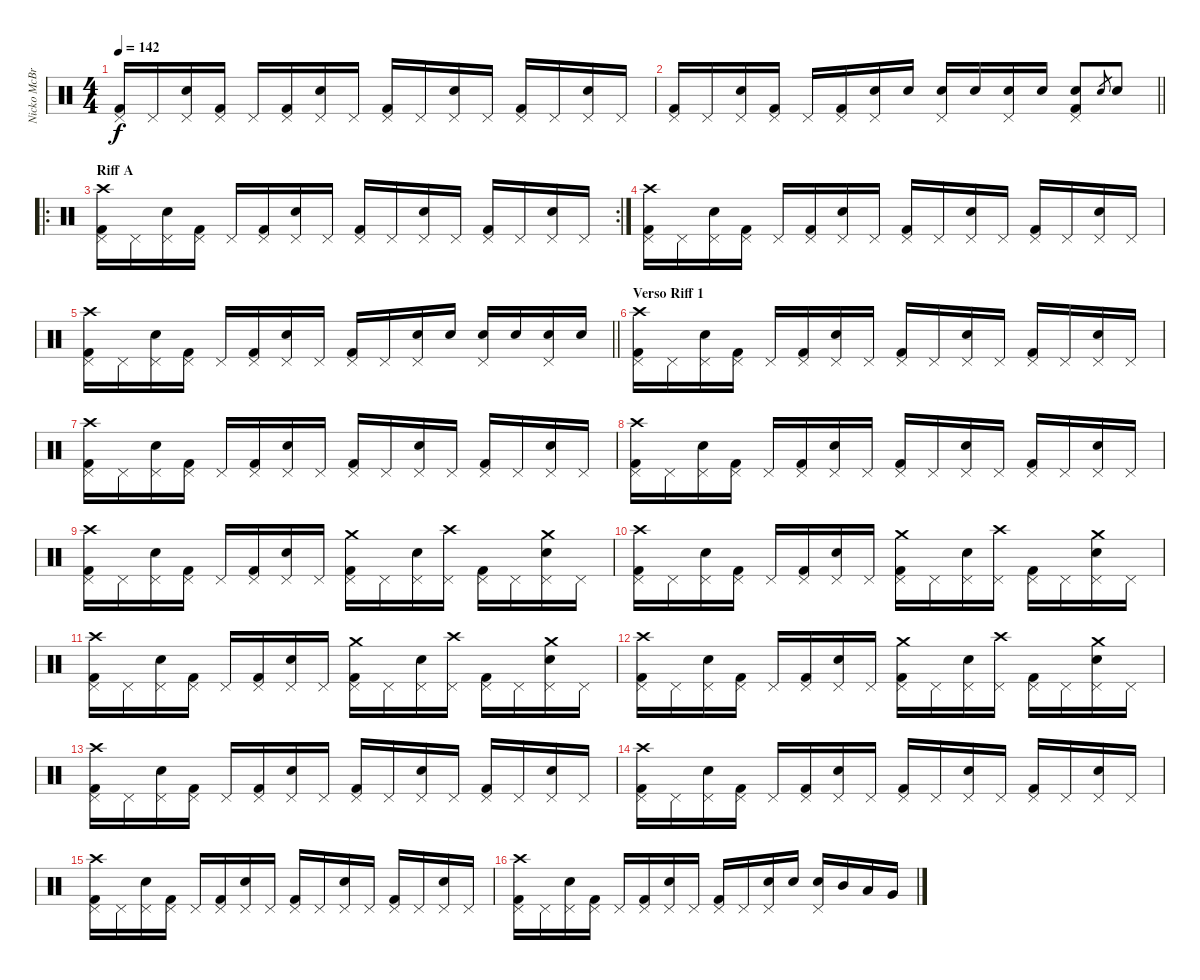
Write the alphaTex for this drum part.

\track ("Nicko McBrain" "Nicko McBr") {instrument percussion}
\staff {score}
\articulation defaults
\ts (4 4)
\tempo 142
\clef neutral
\ks c
("Kick (hit) 2" "Pedal Hi-Hat (hit)").16{dy f} "Pedal Hi-Hat (hit)".16 ("Snare (hit) 2" "Pedal Hi-Hat (hit)").16 ("Kick (hit) 2" "Pedal Hi-Hat (hit)").16 "Pedal Hi-Hat (hit)".16 ("Kick (hit) 2" "Pedal Hi-Hat (hit)").16 ("Snare (hit) 2" "Pedal Hi-Hat (hit)").16 "Pedal Hi-Hat (hit)".16 ("Kick (hit) 2" "Pedal Hi-Hat (hit)").16 "Pedal Hi-Hat (hit)".16 ("Snare (hit) 2" "Pedal Hi-Hat (hit)").16 "Pedal Hi-Hat (hit)".16 ("Kick (hit) 2" "Pedal Hi-Hat (hit)").16 "Pedal Hi-Hat (hit)".16 ("Snare (hit) 2" "Pedal Hi-Hat (hit)").16 "Pedal Hi-Hat (hit)".16 |
\barLineRight lightlight
("Kick (hit) 2" "Pedal Hi-Hat (hit)").16 "Pedal Hi-Hat (hit)".16 ("Snare (hit) 2" "Pedal Hi-Hat (hit)").16 ("Kick (hit) 2" "Pedal Hi-Hat (hit)").16 "Pedal Hi-Hat (hit)".16 ("Kick (hit) 2" "Pedal Hi-Hat (hit)").16 ("Snare (hit) 2" "Pedal Hi-Hat (hit)").16 "Snare (hit) 2".16 ("Snare (hit) 2" "Pedal Hi-Hat (hit)").16 "Snare (hit) 2".16 ("Snare (hit) 2" "Pedal Hi-Hat (hit)").16 "Snare (hit) 2".16 ("Snare (hit) 2" "Pedal Hi-Hat (hit)" "Kick (hit) 2").8 "Snare (hit) 2".8{gr} "Snare (hit) 2".8 |
\ro
\rc 2
\section ("" "Riff A")
("Kick (hit) 2" "Pedal Hi-Hat (hit)" "Crash high (hit)").16 "Pedal Hi-Hat (hit)".16 ("Snare (hit) 2" "Pedal Hi-Hat (hit)").16 ("Kick (hit) 2" "Pedal Hi-Hat (hit)").16 "Pedal Hi-Hat (hit)".16 ("Kick (hit) 2" "Pedal Hi-Hat (hit)").16 ("Snare (hit) 2" "Pedal Hi-Hat (hit)").16 "Pedal Hi-Hat (hit)".16 ("Kick (hit) 2" "Pedal Hi-Hat (hit)").16 "Pedal Hi-Hat (hit)".16 ("Snare (hit) 2" "Pedal Hi-Hat (hit)").16 "Pedal Hi-Hat (hit)".16 ("Kick (hit) 2" "Pedal Hi-Hat (hit)").16 "Pedal Hi-Hat (hit)".16 ("Snare (hit) 2" "Pedal Hi-Hat (hit)").16 "Pedal Hi-Hat (hit)".16 |
("Kick (hit) 2" "Pedal Hi-Hat (hit)" "Crash high (hit)").16 "Pedal Hi-Hat (hit)".16 ("Snare (hit) 2" "Pedal Hi-Hat (hit)").16 ("Kick (hit) 2" "Pedal Hi-Hat (hit)").16 "Pedal Hi-Hat (hit)".16 ("Kick (hit) 2" "Pedal Hi-Hat (hit)").16 ("Snare (hit) 2" "Pedal Hi-Hat (hit)").16 "Pedal Hi-Hat (hit)".16 ("Kick (hit) 2" "Pedal Hi-Hat (hit)").16 "Pedal Hi-Hat (hit)".16 ("Snare (hit) 2" "Pedal Hi-Hat (hit)").16 "Pedal Hi-Hat (hit)".16 ("Kick (hit) 2" "Pedal Hi-Hat (hit)").16 "Pedal Hi-Hat (hit)".16 ("Snare (hit) 2" "Pedal Hi-Hat (hit)").16 "Pedal Hi-Hat (hit)".16 |
\barLineRight lightlight
("Kick (hit) 2" "Pedal Hi-Hat (hit)" "Crash high (hit)").16 "Pedal Hi-Hat (hit)".16 ("Snare (hit) 2" "Pedal Hi-Hat (hit)").16 ("Kick (hit) 2" "Pedal Hi-Hat (hit)").16 "Pedal Hi-Hat (hit)".16 ("Kick (hit) 2" "Pedal Hi-Hat (hit)").16 ("Snare (hit) 2" "Pedal Hi-Hat (hit)").16 "Pedal Hi-Hat (hit)".16 ("Kick (hit) 2" "Pedal Hi-Hat (hit)").16 "Pedal Hi-Hat (hit)".16 ("Snare (hit) 2" "Pedal Hi-Hat (hit)").16 "Snare (hit) 2".16 ("Snare (hit) 2" "Pedal Hi-Hat (hit)").16 "Snare (hit) 2".16 ("Snare (hit) 2" "Pedal Hi-Hat (hit)").16 "Snare (hit) 2".16 |
\section ("" "Verso Riff 1")
("Kick (hit) 2" "Pedal Hi-Hat (hit)" "Crash high (hit)").16 "Pedal Hi-Hat (hit)".16 ("Snare (hit) 2" "Pedal Hi-Hat (hit)").16 ("Kick (hit) 2" "Pedal Hi-Hat (hit)").16 "Pedal Hi-Hat (hit)".16 ("Kick (hit) 2" "Pedal Hi-Hat (hit)").16 ("Snare (hit) 2" "Pedal Hi-Hat (hit)").16 "Pedal Hi-Hat (hit)".16 ("Kick (hit) 2" "Pedal Hi-Hat (hit)").16 "Pedal Hi-Hat (hit)".16 ("Snare (hit) 2" "Pedal Hi-Hat (hit)").16 "Pedal Hi-Hat (hit)".16 ("Kick (hit) 2" "Pedal Hi-Hat (hit)").16 "Pedal Hi-Hat (hit)".16 ("Snare (hit) 2" "Pedal Hi-Hat (hit)").16 "Pedal Hi-Hat (hit)".16 |
("Kick (hit) 2" "Pedal Hi-Hat (hit)" "Crash high (hit)").16 "Pedal Hi-Hat (hit)".16 ("Snare (hit) 2" "Pedal Hi-Hat (hit)").16 ("Kick (hit) 2" "Pedal Hi-Hat (hit)").16 "Pedal Hi-Hat (hit)".16 ("Kick (hit) 2" "Pedal Hi-Hat (hit)").16 ("Snare (hit) 2" "Pedal Hi-Hat (hit)").16 "Pedal Hi-Hat (hit)".16 ("Kick (hit) 2" "Pedal Hi-Hat (hit)").16 "Pedal Hi-Hat (hit)".16 ("Snare (hit) 2" "Pedal Hi-Hat (hit)").16 "Pedal Hi-Hat (hit)".16 ("Kick (hit) 2" "Pedal Hi-Hat (hit)").16 "Pedal Hi-Hat (hit)".16 ("Snare (hit) 2" "Pedal Hi-Hat (hit)").16 "Pedal Hi-Hat (hit)".16 |
("Kick (hit) 2" "Pedal Hi-Hat (hit)" "Crash high (hit)").16 "Pedal Hi-Hat (hit)".16 ("Snare (hit) 2" "Pedal Hi-Hat (hit)").16 ("Kick (hit) 2" "Pedal Hi-Hat (hit)").16 "Pedal Hi-Hat (hit)".16 ("Kick (hit) 2" "Pedal Hi-Hat (hit)").16 ("Snare (hit) 2" "Pedal Hi-Hat (hit)").16 "Pedal Hi-Hat (hit)".16 ("Kick (hit) 2" "Pedal Hi-Hat (hit)").16 "Pedal Hi-Hat (hit)".16 ("Snare (hit) 2" "Pedal Hi-Hat (hit)").16 "Pedal Hi-Hat (hit)".16 ("Kick (hit) 2" "Pedal Hi-Hat (hit)").16 "Pedal Hi-Hat (hit)".16 ("Snare (hit) 2" "Pedal Hi-Hat (hit)").16 "Pedal Hi-Hat (hit)".16 |
("Kick (hit) 2" "Pedal Hi-Hat (hit)" "Crash high (hit)").16 "Pedal Hi-Hat (hit)".16 ("Snare (hit) 2" "Pedal Hi-Hat (hit)").16 ("Kick (hit) 2" "Pedal Hi-Hat (hit)").16 "Pedal Hi-Hat (hit)".16 ("Kick (hit) 2" "Pedal Hi-Hat (hit)").16 ("Snare (hit) 2" "Pedal Hi-Hat (hit)").16 "Pedal Hi-Hat (hit)".16 ("Kick (hit) 2" "Pedal Hi-Hat (hit)" "Crash medium (hit)").16 "Pedal Hi-Hat (hit)".16 ("Snare (hit) 2" "Pedal Hi-Hat (hit)").16 ("Pedal Hi-Hat (hit)" "Crash high (hit)").16 ("Kick (hit) 2" "Pedal Hi-Hat (hit)").16 "Pedal Hi-Hat (hit)".16 ("Snare (hit) 2" "Pedal Hi-Hat (hit)" "Crash medium (hit)").16 "Pedal Hi-Hat (hit)".16 |
("Kick (hit) 2" "Pedal Hi-Hat (hit)" "Crash high (hit)").16 "Pedal Hi-Hat (hit)".16 ("Snare (hit) 2" "Pedal Hi-Hat (hit)").16 ("Kick (hit) 2" "Pedal Hi-Hat (hit)").16 "Pedal Hi-Hat (hit)".16 ("Kick (hit) 2" "Pedal Hi-Hat (hit)").16 ("Snare (hit) 2" "Pedal Hi-Hat (hit)").16 "Pedal Hi-Hat (hit)".16 ("Kick (hit) 2" "Pedal Hi-Hat (hit)" "Crash medium (hit)").16 "Pedal Hi-Hat (hit)".16 ("Snare (hit) 2" "Pedal Hi-Hat (hit)").16 ("Pedal Hi-Hat (hit)" "Crash high (hit)").16 ("Kick (hit) 2" "Pedal Hi-Hat (hit)").16 "Pedal Hi-Hat (hit)".16 ("Snare (hit) 2" "Pedal Hi-Hat (hit)" "Crash medium (hit)").16 "Pedal Hi-Hat (hit)".16 |
("Kick (hit) 2" "Pedal Hi-Hat (hit)" "Crash high (hit)").16 "Pedal Hi-Hat (hit)".16 ("Snare (hit) 2" "Pedal Hi-Hat (hit)").16 ("Kick (hit) 2" "Pedal Hi-Hat (hit)").16 "Pedal Hi-Hat (hit)".16 ("Kick (hit) 2" "Pedal Hi-Hat (hit)").16 ("Snare (hit) 2" "Pedal Hi-Hat (hit)").16 "Pedal Hi-Hat (hit)".16 ("Kick (hit) 2" "Pedal Hi-Hat (hit)" "Crash medium (hit)").16 "Pedal Hi-Hat (hit)".16 ("Snare (hit) 2" "Pedal Hi-Hat (hit)").16 ("Pedal Hi-Hat (hit)" "Crash high (hit)").16 ("Kick (hit) 2" "Pedal Hi-Hat (hit)").16 "Pedal Hi-Hat (hit)".16 ("Snare (hit) 2" "Pedal Hi-Hat (hit)" "Crash medium (hit)").16 "Pedal Hi-Hat (hit)".16 |
("Kick (hit) 2" "Pedal Hi-Hat (hit)" "Crash high (hit)").16 "Pedal Hi-Hat (hit)".16 ("Snare (hit) 2" "Pedal Hi-Hat (hit)").16 ("Kick (hit) 2" "Pedal Hi-Hat (hit)").16 "Pedal Hi-Hat (hit)".16 ("Kick (hit) 2" "Pedal Hi-Hat (hit)").16 ("Snare (hit) 2" "Pedal Hi-Hat (hit)").16 "Pedal Hi-Hat (hit)".16 ("Kick (hit) 2" "Pedal Hi-Hat (hit)" "Crash medium (hit)").16 "Pedal Hi-Hat (hit)".16 ("Snare (hit) 2" "Pedal Hi-Hat (hit)").16 ("Pedal Hi-Hat (hit)" "Crash high (hit)").16 ("Kick (hit) 2" "Pedal Hi-Hat (hit)").16 "Pedal Hi-Hat (hit)".16 ("Snare (hit) 2" "Pedal Hi-Hat (hit)" "Crash medium (hit)").16 "Pedal Hi-Hat (hit)".16 |
("Kick (hit) 2" "Pedal Hi-Hat (hit)" "Crash high (hit)").16 "Pedal Hi-Hat (hit)".16 ("Snare (hit) 2" "Pedal Hi-Hat (hit)").16 ("Kick (hit) 2" "Pedal Hi-Hat (hit)").16 "Pedal Hi-Hat (hit)".16 ("Kick (hit) 2" "Pedal Hi-Hat (hit)").16 ("Snare (hit) 2" "Pedal Hi-Hat (hit)").16 "Pedal Hi-Hat (hit)".16 ("Kick (hit) 2" "Pedal Hi-Hat (hit)").16 "Pedal Hi-Hat (hit)".16 ("Snare (hit) 2" "Pedal Hi-Hat (hit)").16 "Pedal Hi-Hat (hit)".16 ("Kick (hit) 2" "Pedal Hi-Hat (hit)").16 "Pedal Hi-Hat (hit)".16 ("Snare (hit) 2" "Pedal Hi-Hat (hit)").16 "Pedal Hi-Hat (hit)".16 |
("Kick (hit) 2" "Pedal Hi-Hat (hit)" "Crash high (hit)").16 "Pedal Hi-Hat (hit)".16 ("Snare (hit) 2" "Pedal Hi-Hat (hit)").16 ("Kick (hit) 2" "Pedal Hi-Hat (hit)").16 "Pedal Hi-Hat (hit)".16 ("Kick (hit) 2" "Pedal Hi-Hat (hit)").16 ("Snare (hit) 2" "Pedal Hi-Hat (hit)").16 "Pedal Hi-Hat (hit)".16 ("Kick (hit) 2" "Pedal Hi-Hat (hit)").16 "Pedal Hi-Hat (hit)".16 ("Snare (hit) 2" "Pedal Hi-Hat (hit)").16 "Pedal Hi-Hat (hit)".16 ("Kick (hit) 2" "Pedal Hi-Hat (hit)").16 "Pedal Hi-Hat (hit)".16 ("Snare (hit) 2" "Pedal Hi-Hat (hit)").16 "Pedal Hi-Hat (hit)".16 |
("Kick (hit) 2" "Pedal Hi-Hat (hit)" "Crash high (hit)").16 "Pedal Hi-Hat (hit)".16 ("Snare (hit) 2" "Pedal Hi-Hat (hit)").16 ("Kick (hit) 2" "Pedal Hi-Hat (hit)").16 "Pedal Hi-Hat (hit)".16 ("Kick (hit) 2" "Pedal Hi-Hat (hit)").16 ("Snare (hit) 2" "Pedal Hi-Hat (hit)").16 "Pedal Hi-Hat (hit)".16 ("Kick (hit) 2" "Pedal Hi-Hat (hit)").16 "Pedal Hi-Hat (hit)".16 ("Snare (hit) 2" "Pedal Hi-Hat (hit)").16 "Pedal Hi-Hat (hit)".16 ("Kick (hit) 2" "Pedal Hi-Hat (hit)").16 "Pedal Hi-Hat (hit)".16 ("Snare (hit) 2" "Pedal Hi-Hat (hit)").16 "Pedal Hi-Hat (hit)".16 |
("Kick (hit) 2" "Pedal Hi-Hat (hit)" "Crash high (hit)").16 "Pedal Hi-Hat (hit)".16 ("Snare (hit) 2" "Pedal Hi-Hat (hit)").16 ("Kick (hit) 2" "Pedal Hi-Hat (hit)").16 "Pedal Hi-Hat (hit)".16 ("Kick (hit) 2" "Pedal Hi-Hat (hit)").16 ("Snare (hit) 2" "Pedal Hi-Hat (hit)").16 "Pedal Hi-Hat (hit)".16 ("Kick (hit) 2" "Pedal Hi-Hat (hit)").16 "Pedal Hi-Hat (hit)".16 ("Snare (hit) 2" "Pedal Hi-Hat (hit)").16 "Snare (hit) 2".16 ("Snare (hit) 2" "Pedal Hi-Hat (hit)").16 "Mid Tom (hit)".16 "Low Tom (hit)".16 "Very Low Tom (hit)".16
